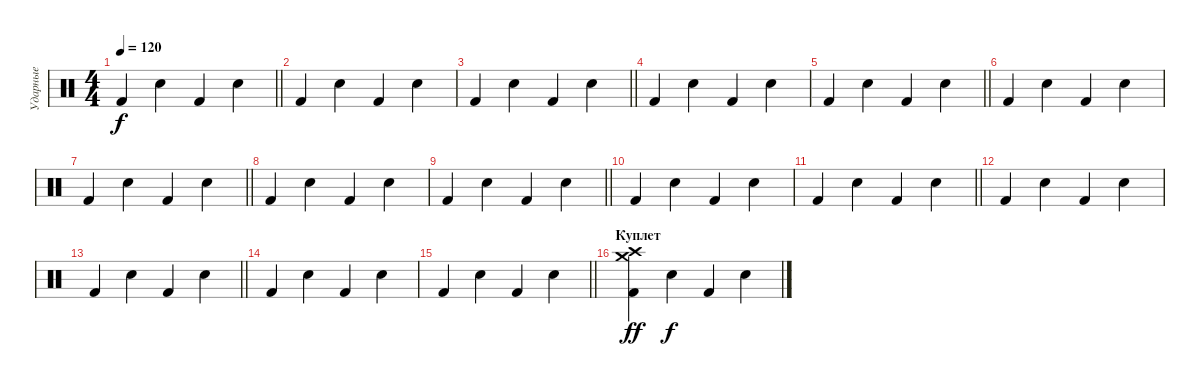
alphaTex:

\track ("Ударные" "Ударные") {instrument percussion}
\staff {score}
\articulation defaults
\ts (4 4)
\tempo 120
\clef neutral
\barLineRight lightlight
\ks c "Kick (hit) 2".4{dy f} "Snare (hit) 2".4 "Kick (hit) 2".4 "Snare (hit) 2".4
|
"Kick (hit) 2".4 "Snare (hit) 2".4 "Kick (hit) 2".4 "Snare (hit) 2".4 |
\barLineRight lightlight "Kick (hit) 2".4 "Snare (hit) 2".4 "Kick (hit) 2".4 "Snare (hit) 2".4
|
"Kick (hit) 2".4 "Snare (hit) 2".4 "Kick (hit) 2".4 "Snare (hit) 2".4 |
\barLineRight lightlight "Kick (hit) 2".4 "Snare (hit) 2".4 "Kick (hit) 2".4 "Snare (hit) 2".4
|
"Kick (hit) 2".4 "Snare (hit) 2".4 "Kick (hit) 2".4 "Snare (hit) 2".4 |
\barLineRight lightlight "Kick (hit) 2".4 "Snare (hit) 2".4 "Kick (hit) 2".4 "Snare (hit) 2".4
|
"Kick (hit) 2".4 "Snare (hit) 2".4 "Kick (hit) 2".4 "Snare (hit) 2".4 |
\barLineRight lightlight "Kick (hit) 2".4 "Snare (hit) 2".4 "Kick (hit) 2".4 "Snare (hit) 2".4
|
"Kick (hit) 2".4 "Snare (hit) 2".4 "Kick (hit) 2".4 "Snare (hit) 2".4 |
\barLineRight lightlight "Kick (hit) 2".4 "Snare (hit) 2".4 "Kick (hit) 2".4 "Snare (hit) 2".4
|
"Kick (hit) 2".4 "Snare (hit) 2".4 "Kick (hit) 2".4 "Snare (hit) 2".4 |
\barLineRight lightlight "Kick (hit) 2".4 "Snare (hit) 2".4 "Kick (hit) 2".4 "Snare (hit) 2".4
|
"Kick (hit) 2".4 "Snare (hit) 2".4 "Kick (hit) 2".4 "Snare (hit) 2".4 |
\barLineRight lightlight "Kick (hit) 2".4 "Snare (hit) 2".4 "Kick (hit) 2".4 "Snare (hit) 2".4
|
\section ("" "Куплет")
("Crash high (hit)" "Crash medium (hit)" "Kick (hit) 2").4{dy ff} "Snare (hit) 2".4{dy f} "Kick (hit) 2".4 "Snare (hit) 2".4
